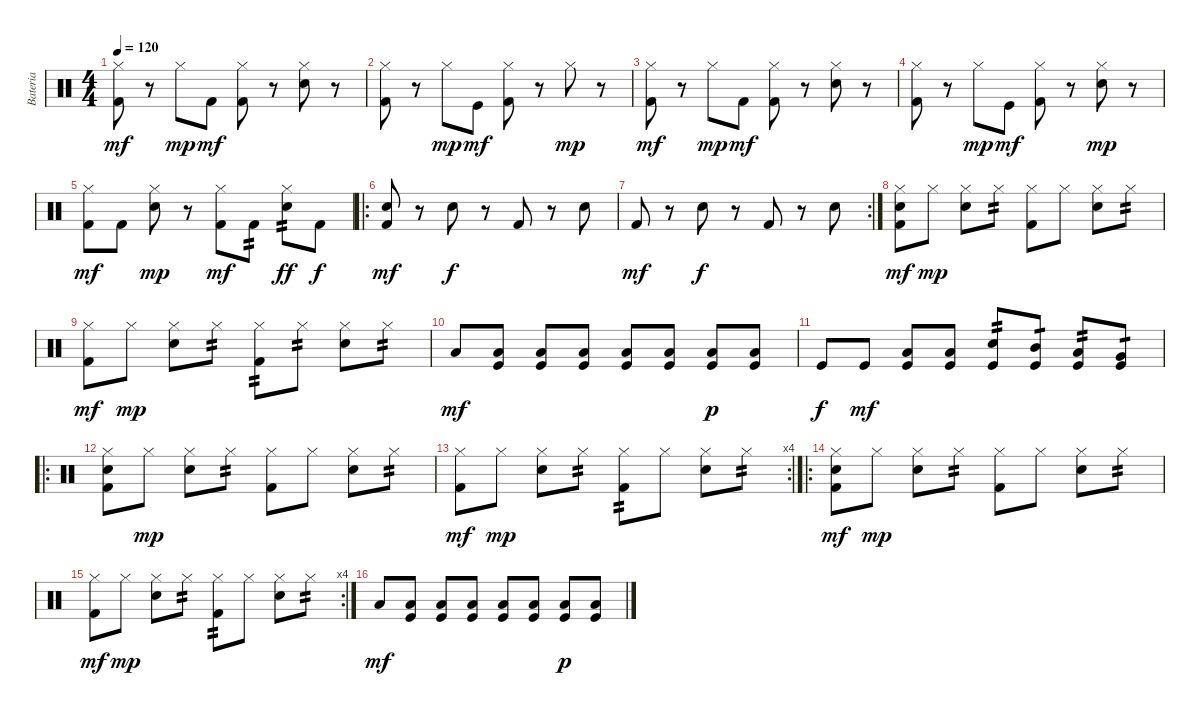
\track ("Bateria" "Bateria") {instrument percussion}
\staff {score}
\articulation defaults
\ts (4 4)
\tempo 120
\clef neutral
\ks c
("Hi-Hat (closed)" "Kick (hit) 2").8{dy mf} r.8 "Hi-Hat (closed)".8{dy mp} "Kick (hit) 2".8{dy mf} ("Hi-Hat (closed)" "Kick (hit) 2").8 r.8 ("Hi-Hat (closed)" "Electric Snare (hit)").8 r.8 |
("Hi-Hat (closed)" "Kick (hit) 2").8 r.8 "Hi-Hat (closed)".8{dy mp} "Kick (hit)".8{dy mf} ("Hi-Hat (closed)" "Kick (hit) 2").8 r.8 "Hi-Hat (closed)".8{dy mp} r.8 |
("Hi-Hat (closed)" "Kick (hit) 2").8{dy mf} r.8 "Hi-Hat (closed)".8{dy mp} "Kick (hit) 2".8{dy mf} ("Hi-Hat (closed)" "Kick (hit) 2").8 r.8 ("Hi-Hat (closed)" "Electric Snare (hit)").8 r.8 |
("Hi-Hat (closed)" "Kick (hit) 2").8 r.8 "Hi-Hat (closed)".8{dy mp} "Kick (hit)".8{dy mf} ("Hi-Hat (closed)" "Kick (hit) 2").8 r.8 ("Hi-Hat (closed)" "Electric Snare (hit)").8{dy mp} r.8 |
("Hi-Hat (closed)" "Kick (hit) 2").8{dy mf} "Kick (hit) 2".8 ("Hi-Hat (closed)" "Electric Snare (hit)").8{dy mp} r.8 ("Hi-Hat (closed)" "Kick (hit) 2").8{dy mf} "Kick (hit) 2".8{tp 2} ("Hi-Hat (closed)" "Electric Snare (hit)").8{tp 2 dy ff} "Kick (hit) 2".8{dy f} |
\ro
("Electric Snare (hit)" "Kick (hit) 2").8{dy mf} r.8 "Electric Snare (hit)".8{dy f} r.8 "Kick (hit) 2".8 r.8 "Electric Snare (hit)".8 |
\rc 2 "Kick (hit) 2".8{dy mf}
r.8 "Electric Snare (hit)".8{dy f} r.8 "Kick (hit) 2".8 r.8 "Electric Snare (hit)".8 |
("Hi-Hat (closed)" "Electric Snare (hit)" "Kick (hit) 2").8{dy mf} "Hi-Hat (closed)".8{dy mp} ("Hi-Hat (closed)" "Electric Snare (hit)").8 "Hi-Hat (closed)".8{tp 2} ("Hi-Hat (closed)" "Kick (hit) 2").8 "Hi-Hat (closed)".8 ("Hi-Hat (closed)" "Electric Snare (hit)").8 "Hi-Hat (closed)".8{tp 2} |
("Hi-Hat (closed)" "Kick (hit) 2").8{dy mf} "Hi-Hat (closed)".8{dy mp} ("Hi-Hat (closed)" "Electric Snare (hit)").8 "Hi-Hat (closed)".8{tp 2} ("Hi-Hat (closed)" "Kick (hit) 2").8{tp 2} "Hi-Hat (closed)".8{tp 2} ("Hi-Hat (closed)" "Electric Snare (hit)").8 "Hi-Hat (closed)".8{tp 2} |
"Low Floor Tom (hit)".8{dy mf} ("Low Floor Tom (hit)" "Kick (hit)").8 ("Low Floor Tom (hit)" "Kick (hit)").8 ("Low Floor Tom (hit)" "Kick (hit)").8 ("Low Floor Tom (hit)" "Kick (hit)").8 ("Low Floor Tom (hit)" "Kick (hit)").8 ("Low Floor Tom (hit)" "Kick (hit)").8{dy p} ("Low Floor Tom (hit)" "Kick (hit)").8 |
"Kick (hit)".8{dy f} "Kick (hit)".8{dy mf} ("Low Floor Tom (hit)" "Kick (hit)").8 ("Low Floor Tom (hit)" "Kick (hit)").8 ("Electric Snare (hit)" "Kick (hit)").8{tp 2} ("Mid Tom (hit)" "Kick (hit)").8{tp 1} ("Low Tom (hit)" "Kick (hit)").8{tp 2} ("Very Low Tom (hit)" "Kick (hit)").8{tp 1} |
\ro
("Hi-Hat (closed)" "Electric Snare (hit)" "Kick (hit) 2").8 "Hi-Hat (closed)".8{dy mp} ("Hi-Hat (closed)" "Electric Snare (hit)").8 "Hi-Hat (closed)".8{tp 2} ("Hi-Hat (closed)" "Kick (hit) 2").8 "Hi-Hat (closed)".8 ("Hi-Hat (closed)" "Electric Snare (hit)").8 "Hi-Hat (closed)".8{tp 2} |
\rc 4
("Hi-Hat (closed)" "Kick (hit) 2").8{dy mf} "Hi-Hat (closed)".8{dy mp} ("Hi-Hat (closed)" "Electric Snare (hit)").8 "Hi-Hat (closed)".8{tp 2} ("Hi-Hat (closed)" "Kick (hit) 2").8{tp 2} "Hi-Hat (closed)".8 ("Hi-Hat (closed)" "Electric Snare (hit)").8 "Hi-Hat (closed)".8{tp 2} |
\ro
("Hi-Hat (closed)" "Electric Snare (hit)" "Kick (hit) 2").8{dy mf} "Hi-Hat (closed)".8{dy mp} ("Hi-Hat (closed)" "Electric Snare (hit)").8 "Hi-Hat (closed)".8{tp 2} ("Hi-Hat (closed)" "Kick (hit) 2").8 "Hi-Hat (closed)".8 ("Hi-Hat (closed)" "Electric Snare (hit)").8 "Hi-Hat (closed)".8{tp 2} |
\rc 4
("Hi-Hat (closed)" "Kick (hit) 2").8{dy mf} "Hi-Hat (closed)".8{dy mp} ("Hi-Hat (closed)" "Electric Snare (hit)").8 "Hi-Hat (closed)".8{tp 2} ("Hi-Hat (closed)" "Kick (hit) 2").8{tp 2} "Hi-Hat (closed)".8 ("Hi-Hat (closed)" "Electric Snare (hit)").8 "Hi-Hat (closed)".8{tp 2} |
"Low Floor Tom (hit)".8{dy mf} ("Low Floor Tom (hit)" "Kick (hit)").8 ("Low Floor Tom (hit)" "Kick (hit)").8 ("Low Floor Tom (hit)" "Kick (hit)").8 ("Low Floor Tom (hit)" "Kick (hit)").8 ("Low Floor Tom (hit)" "Kick (hit)").8 ("Low Floor Tom (hit)" "Kick (hit)").8{dy p} ("Low Floor Tom (hit)" "Kick (hit)").8
